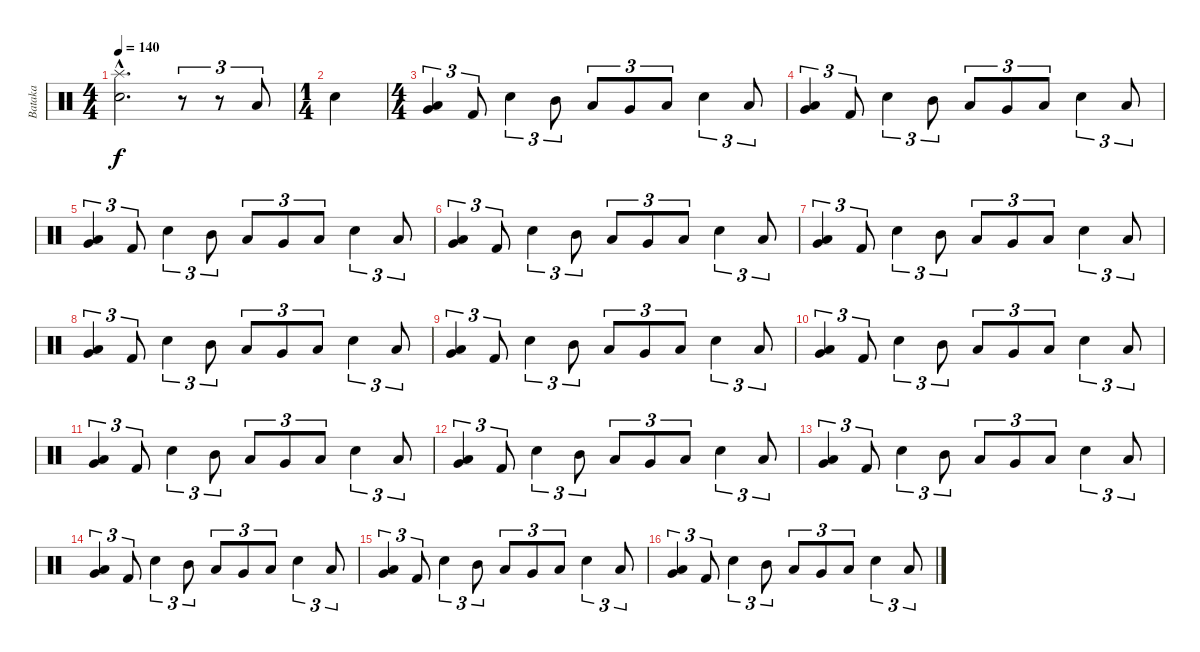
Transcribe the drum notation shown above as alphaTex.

\track ("Bataka" "Bataka") {instrument percussion}
\staff {score}
\articulation defaults
\ts (4 4)
\tempo 140
\clef neutral
\ks c
("Splash (hit)"{hac} "Electric Snare (hit)"{hac}).2{d dy f} r.8{tu (3 2)} r.8{tu (3 2)} "Low Tom (hit)".8{tu (3 2)} |
\ts (1 4)
"Electric Snare (hit)".4 |
\ts (4 4)
("Very Low Tom (hit)" "Low Tom (hit)").4{tu (3 2)} "Kick (hit) 2".8{tu (3 2)} "Electric Snare (hit)".4{tu (3 2)} "Mid Tom (hit)".8{tu (3 2)} "Low Tom (hit)".8{tu (3 2)} "Very Low Tom (hit)".8{tu (3 2)} "Low Floor Tom (hit)".8{tu (3 2)} "Electric Snare (hit)".4{tu (3 2)} "Low Tom (hit)".8{tu (3 2)} |
("Very Low Tom (hit)" "Low Tom (hit)").4{tu (3 2)} "Kick (hit) 2".8{tu (3 2)} "Electric Snare (hit)".4{tu (3 2)} "Mid Tom (hit)".8{tu (3 2)} "Low Tom (hit)".8{tu (3 2)} "Very Low Tom (hit)".8{tu (3 2)} "Low Floor Tom (hit)".8{tu (3 2)} "Electric Snare (hit)".4{tu (3 2)} "Low Tom (hit)".8{tu (3 2)} |
("Very Low Tom (hit)" "Low Tom (hit)").4{tu (3 2)} "Kick (hit) 2".8{tu (3 2)} "Electric Snare (hit)".4{tu (3 2)} "Mid Tom (hit)".8{tu (3 2)} "Low Tom (hit)".8{tu (3 2)} "Very Low Tom (hit)".8{tu (3 2)} "Low Floor Tom (hit)".8{tu (3 2)} "Electric Snare (hit)".4{tu (3 2)} "Low Tom (hit)".8{tu (3 2)} |
("Very Low Tom (hit)" "Low Tom (hit)").4{tu (3 2)} "Kick (hit) 2".8{tu (3 2)} "Electric Snare (hit)".4{tu (3 2)} "Mid Tom (hit)".8{tu (3 2)} "Low Tom (hit)".8{tu (3 2)} "Very Low Tom (hit)".8{tu (3 2)} "Low Floor Tom (hit)".8{tu (3 2)} "Electric Snare (hit)".4{tu (3 2)} "Low Tom (hit)".8{tu (3 2)} |
("Very Low Tom (hit)" "Low Tom (hit)").4{tu (3 2)} "Kick (hit) 2".8{tu (3 2)} "Electric Snare (hit)".4{tu (3 2)} "Mid Tom (hit)".8{tu (3 2)} "Low Tom (hit)".8{tu (3 2)} "Very Low Tom (hit)".8{tu (3 2)} "Low Floor Tom (hit)".8{tu (3 2)} "Electric Snare (hit)".4{tu (3 2)} "Low Tom (hit)".8{tu (3 2)} |
("Very Low Tom (hit)" "Low Tom (hit)").4{tu (3 2)} "Kick (hit) 2".8{tu (3 2)} "Electric Snare (hit)".4{tu (3 2)} "Mid Tom (hit)".8{tu (3 2)} "Low Tom (hit)".8{tu (3 2)} "Very Low Tom (hit)".8{tu (3 2)} "Low Floor Tom (hit)".8{tu (3 2)} "Electric Snare (hit)".4{tu (3 2)} "Low Tom (hit)".8{tu (3 2)} |
("Very Low Tom (hit)" "Low Tom (hit)").4{tu (3 2)} "Kick (hit) 2".8{tu (3 2)} "Electric Snare (hit)".4{tu (3 2)} "Mid Tom (hit)".8{tu (3 2)} "Low Tom (hit)".8{tu (3 2)} "Very Low Tom (hit)".8{tu (3 2)} "Low Floor Tom (hit)".8{tu (3 2)} "Electric Snare (hit)".4{tu (3 2)} "Low Tom (hit)".8{tu (3 2)} |
("Very Low Tom (hit)" "Low Tom (hit)").4{tu (3 2)} "Kick (hit) 2".8{tu (3 2)} "Electric Snare (hit)".4{tu (3 2)} "Mid Tom (hit)".8{tu (3 2)} "Low Tom (hit)".8{tu (3 2)} "Very Low Tom (hit)".8{tu (3 2)} "Low Floor Tom (hit)".8{tu (3 2)} "Electric Snare (hit)".4{tu (3 2)} "Low Tom (hit)".8{tu (3 2)} |
("Very Low Tom (hit)" "Low Tom (hit)").4{tu (3 2)} "Kick (hit) 2".8{tu (3 2)} "Electric Snare (hit)".4{tu (3 2)} "Mid Tom (hit)".8{tu (3 2)} "Low Tom (hit)".8{tu (3 2)} "Very Low Tom (hit)".8{tu (3 2)} "Low Floor Tom (hit)".8{tu (3 2)} "Electric Snare (hit)".4{tu (3 2)} "Low Tom (hit)".8{tu (3 2)} |
("Very Low Tom (hit)" "Low Tom (hit)").4{tu (3 2)} "Kick (hit) 2".8{tu (3 2)} "Electric Snare (hit)".4{tu (3 2)} "Mid Tom (hit)".8{tu (3 2)} "Low Tom (hit)".8{tu (3 2)} "Very Low Tom (hit)".8{tu (3 2)} "Low Floor Tom (hit)".8{tu (3 2)} "Electric Snare (hit)".4{tu (3 2)} "Low Tom (hit)".8{tu (3 2)} |
("Very Low Tom (hit)" "Low Tom (hit)").4{tu (3 2)} "Kick (hit) 2".8{tu (3 2)} "Electric Snare (hit)".4{tu (3 2)} "Mid Tom (hit)".8{tu (3 2)} "Low Tom (hit)".8{tu (3 2)} "Very Low Tom (hit)".8{tu (3 2)} "Low Floor Tom (hit)".8{tu (3 2)} "Electric Snare (hit)".4{tu (3 2)} "Low Tom (hit)".8{tu (3 2)} |
("Very Low Tom (hit)" "Low Tom (hit)").4{tu (3 2)} "Kick (hit) 2".8{tu (3 2)} "Electric Snare (hit)".4{tu (3 2)} "Mid Tom (hit)".8{tu (3 2)} "Low Tom (hit)".8{tu (3 2)} "Very Low Tom (hit)".8{tu (3 2)} "Low Floor Tom (hit)".8{tu (3 2)} "Electric Snare (hit)".4{tu (3 2)} "Low Tom (hit)".8{tu (3 2)} |
("Very Low Tom (hit)" "Low Tom (hit)").4{tu (3 2)} "Kick (hit) 2".8{tu (3 2)} "Electric Snare (hit)".4{tu (3 2)} "Mid Tom (hit)".8{tu (3 2)} "Low Tom (hit)".8{tu (3 2)} "Very Low Tom (hit)".8{tu (3 2)} "Low Floor Tom (hit)".8{tu (3 2)} "Electric Snare (hit)".4{tu (3 2)} "Low Tom (hit)".8{tu (3 2)} |
("Very Low Tom (hit)" "Low Tom (hit)").4{tu (3 2)} "Kick (hit) 2".8{tu (3 2)} "Electric Snare (hit)".4{tu (3 2)} "Mid Tom (hit)".8{tu (3 2)} "Low Tom (hit)".8{tu (3 2)} "Very Low Tom (hit)".8{tu (3 2)} "Low Floor Tom (hit)".8{tu (3 2)} "Electric Snare (hit)".4{tu (3 2)} "Low Tom (hit)".8{tu (3 2)}
